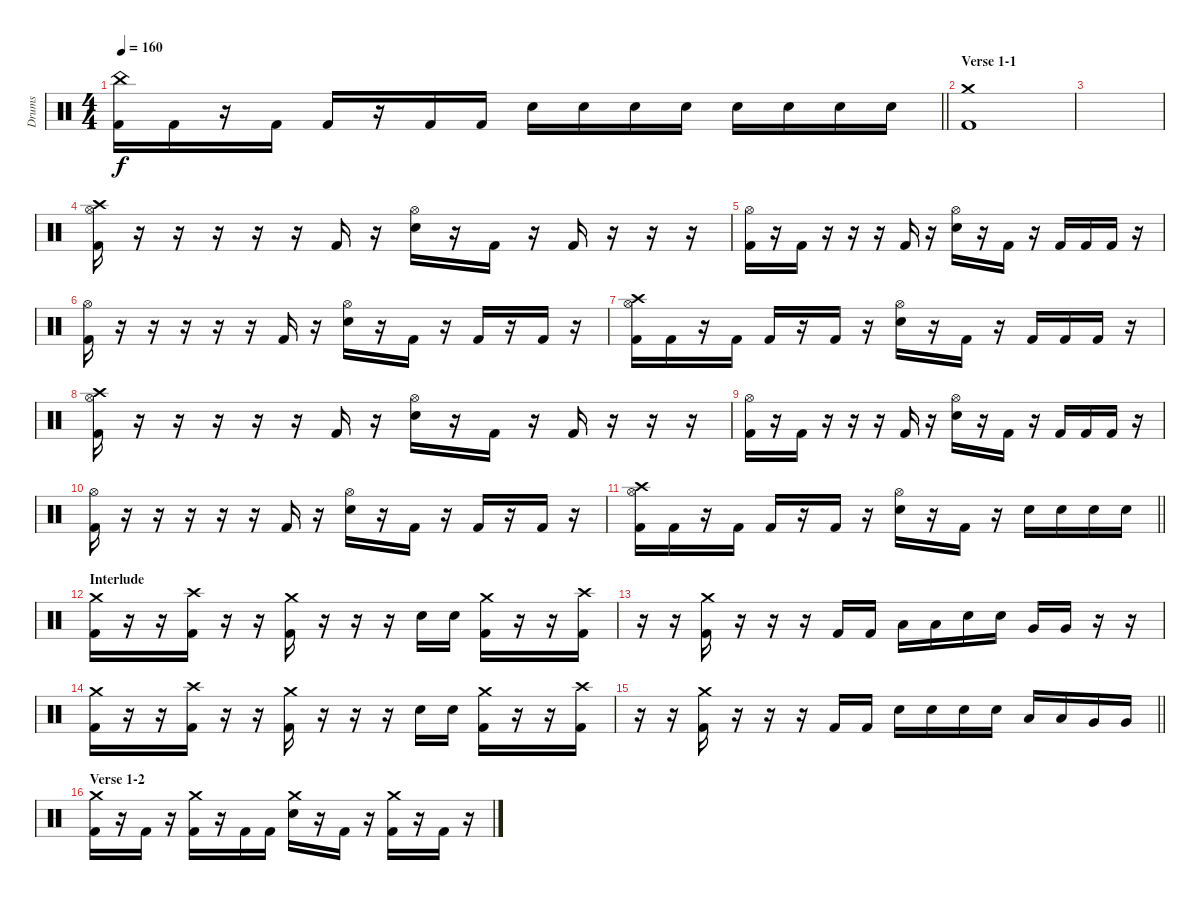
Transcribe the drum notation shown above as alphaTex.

\track ("Drums" "Drums") {instrument percussion}
\staff {score}
\articulation defaults
\ts (4 4)
\tempo 160
\clef neutral
\barLineRight lightlight
\ks c
("China (hit)" "Kick (hit) 2").16{dy f} "Kick (hit) 2".16 r.16 "Kick (hit) 2".16 "Kick (hit) 2".16 r.16 "Kick (hit) 2".16 "Kick (hit) 2".16 "Electric Snare (hit)".16 "Electric Snare (hit)".16 "Electric Snare (hit)".16 "Electric Snare (hit)".16 "Electric Snare (hit)".16 "Electric Snare (hit)".16 "Electric Snare (hit)".16 "Electric Snare (hit)".16 |
\section ("" "Verse 1-1")
("Crash medium (hit)" "Kick (hit) 2").1 |
|
("Crash high (hit)" "Hi-Hat (open)" "Kick (hit) 2").16 r.16 r.16 r.16 r.16 r.16 "Kick (hit) 2".16 r.16 ("Hi-Hat (open)" "Electric Snare (hit)").16 r.16 "Kick (hit) 2".16 r.16 "Kick (hit) 2".16 r.16 r.16 r.16 |
("Hi-Hat (open)" "Kick (hit) 2").16 r.16 "Kick (hit) 2".16 r.16 r.16 r.16 "Kick (hit) 2".16 r.16 ("Hi-Hat (open)" "Electric Snare (hit)").16 r.16 "Kick (hit) 2".16 r.16 "Kick (hit) 2".16 "Kick (hit) 2".16 "Kick (hit) 2".16 r.16 |
("Hi-Hat (open)" "Kick (hit) 2").16 r.16 r.16 r.16 r.16 r.16 "Kick (hit) 2".16 r.16 ("Hi-Hat (open)" "Electric Snare (hit)").16 r.16 "Kick (hit) 2".16 r.16 "Kick (hit) 2".16 r.16 "Kick (hit) 2".16 r.16 |
("Crash high (hit)" "Hi-Hat (open)" "Kick (hit) 2").16 "Kick (hit) 2".16 r.16 "Kick (hit) 2".16 "Kick (hit) 2".16 r.16 "Kick (hit) 2".16 r.16 ("Hi-Hat (open)" "Electric Snare (hit)").16 r.16 "Kick (hit) 2".16 r.16 "Kick (hit) 2".16 "Kick (hit) 2".16 "Kick (hit) 2".16 r.16 |
("Crash high (hit)" "Hi-Hat (open)" "Kick (hit) 2").16 r.16 r.16 r.16 r.16 r.16 "Kick (hit) 2".16 r.16 ("Hi-Hat (open)" "Electric Snare (hit)").16 r.16 "Kick (hit) 2".16 r.16 "Kick (hit) 2".16 r.16 r.16 r.16 |
("Hi-Hat (open)" "Kick (hit) 2").16 r.16 "Kick (hit) 2".16 r.16 r.16 r.16 "Kick (hit) 2".16 r.16 ("Hi-Hat (open)" "Electric Snare (hit)").16 r.16 "Kick (hit) 2".16 r.16 "Kick (hit) 2".16 "Kick (hit) 2".16 "Kick (hit) 2".16 r.16 |
("Hi-Hat (open)" "Kick (hit) 2").16 r.16 r.16 r.16 r.16 r.16 "Kick (hit) 2".16 r.16 ("Hi-Hat (open)" "Electric Snare (hit)").16 r.16 "Kick (hit) 2".16 r.16 "Kick (hit) 2".16 r.16 "Kick (hit) 2".16 r.16 |
\barLineRight lightlight
("Crash high (hit)" "Hi-Hat (open)" "Kick (hit) 2").16 "Kick (hit) 2".16 r.16 "Kick (hit) 2".16 "Kick (hit) 2".16 r.16 "Kick (hit) 2".16 r.16 ("Hi-Hat (open)" "Electric Snare (hit)").16 r.16 "Kick (hit) 2".16 r.16 "Electric Snare (hit)".16 "Electric Snare (hit)".16 "Electric Snare (hit)".16 "Electric Snare (hit)".16 |
\section ("" "Interlude")
("Crash medium (hit)" "Kick (hit) 2").16 r.16 r.16 ("Crash high (hit)" "Kick (hit) 2").16 r.16 r.16 ("Crash medium (hit)" "Kick (hit) 2").16 r.16 r.16 r.16 "Electric Snare (hit)".16 "Electric Snare (hit)".16 ("Crash medium (hit)" "Kick (hit) 2").16 r.16 r.16 ("Crash high (hit)" "Kick (hit) 2").16 |
r.16 r.16 ("Crash medium (hit)" "Kick (hit) 2").16 r.16 r.16 r.16 "Kick (hit) 2".16 "Kick (hit) 2".16 "Low Tom (hit)".16 "Low Tom (hit)".16 "Electric Snare (hit)".16 "Electric Snare (hit)".16 "Very Low Tom (hit)".16 "Very Low Tom (hit)".16 r.16 r.16 |
("Crash medium (hit)" "Kick (hit) 2").16 r.16 r.16 ("Crash high (hit)" "Kick (hit) 2").16 r.16 r.16 ("Crash medium (hit)" "Kick (hit) 2").16 r.16 r.16 r.16 "Electric Snare (hit)".16 "Electric Snare (hit)".16 ("Crash medium (hit)" "Kick (hit) 2").16 r.16 r.16 ("Crash high (hit)" "Kick (hit) 2").16 |
\barLineRight lightlight
r.16 r.16 ("Crash medium (hit)" "Kick (hit) 2").16 r.16 r.16 r.16 "Kick (hit) 2".16 "Kick (hit) 2".16 "Electric Snare (hit)".16 "Electric Snare (hit)".16 "Electric Snare (hit)".16 "Electric Snare (hit)".16 "Low Tom (hit)".16 "Low Tom (hit)".16 "Very Low Tom (hit)".16 "Very Low Tom (hit)".16 |
\section ("" "Verse 1-2")
("Crash medium (hit)" "Kick (hit) 2").16 r.16 "Kick (hit) 2".16 r.16 ("Crash medium (hit)" "Kick (hit) 2").16 r.16 "Kick (hit) 2".16 "Kick (hit) 2".16 ("Crash medium (hit)" "Electric Snare (hit)").16 r.16 "Kick (hit) 2".16 r.16 ("Crash medium (hit)" "Kick (hit) 2").16 r.16 "Kick (hit) 2".16 r.16
